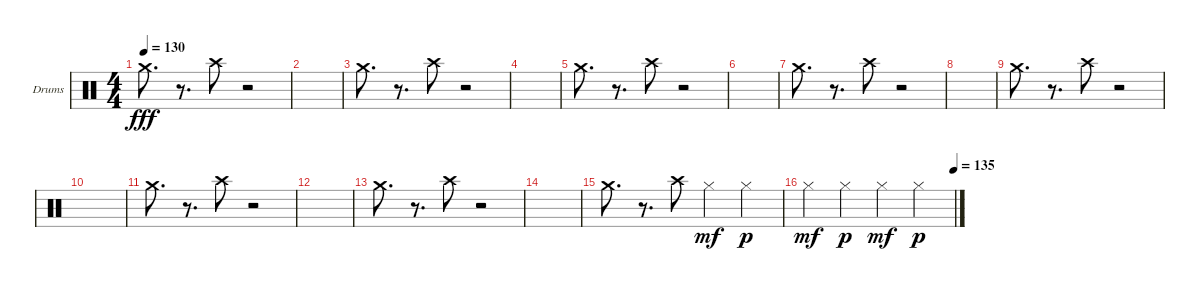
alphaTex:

\defaultSystemsLayout 4
\bracketExtendMode groupsimilarinstruments
\firstSystemTrackNameOrientation horizontal
\otherSystemsTrackNameOrientation horizontal
\track ("Helders" "Drums") {instrument percussion}
\staff {score}
\articulation defaults
\ts (4 4)
\tempo 130
\clef neutral
\ks c "Crash medium (hit)".8{d dy fff}
r.8{d} "Crash high (hit)".8 r.2 |
|
"Crash medium (hit)".8{d} r.8{d} "Crash high (hit)".8 r.2 |
|
"Crash medium (hit)".8{d} r.8{d} "Crash high (hit)".8 r.2 |
|
"Crash medium (hit)".8{d} r.8{d} "Crash high (hit)".8 r.2 |
|
"Crash medium (hit)".8{d} r.8{d} "Crash high (hit)".8 r.2 |
|
"Crash medium (hit)".8{d} r.8{d} "Crash high (hit)".8 r.2 |
|
"Crash medium (hit)".8{d} r.8{d} "Crash high (hit)".8 r.2 |
|
"Crash medium (hit)".8{d} r.8{d} "Crash high (hit)".8 "Hi-Hat (closed)".4{dy mf} "Hi-Hat (closed)".4{dy p} |
\tempo (135 1)
"Hi-Hat (closed)".4{dy mf} "Hi-Hat (closed)".4{dy p} "Hi-Hat (closed)".4{dy mf} "Hi-Hat (closed)".4{dy p}
